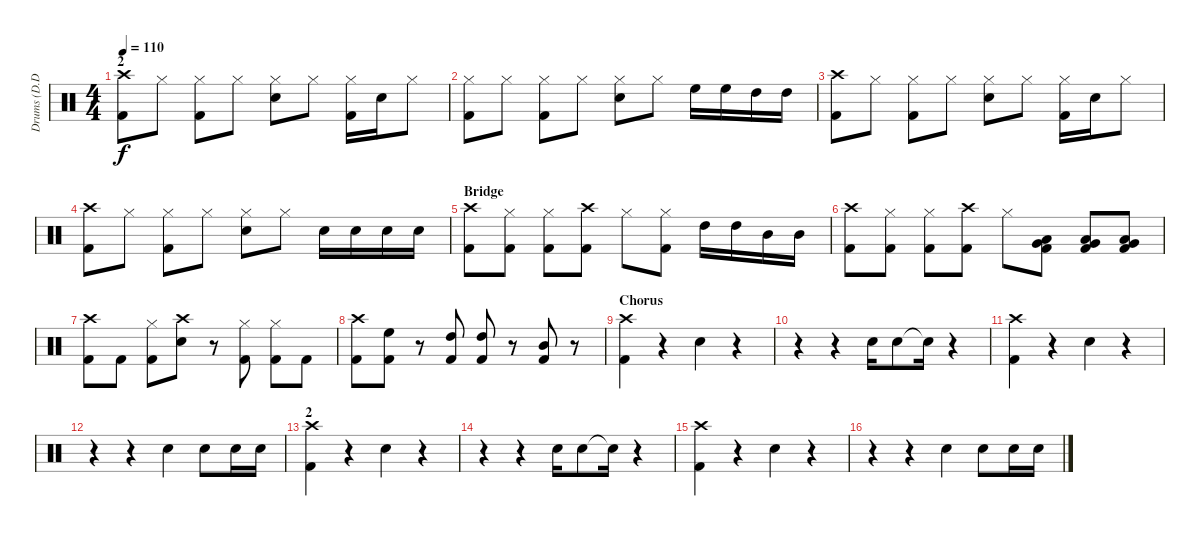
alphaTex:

\track ("Drums (D.D. Bucco)" "Drums (D.D") {instrument percussion}
\staff {score}
\articulation defaults
\ts (4 4)
\section ("" "2")
\tempo 110
\clef neutral
\ks c
("Crash high (hit)" "Kick (hit) 2").8{dy f} "Hi-Hat (closed)".8 ("Hi-Hat (closed)" "Kick (hit) 2").8 "Hi-Hat (closed)".8 ("Hi-Hat (closed)" "Snare (hit) 2").8 "Hi-Hat (closed)".8 ("Hi-Hat (closed)" "Kick (hit) 2").16 "Snare (hit) 2".16 "Hi-Hat (closed)".8 |
("Hi-Hat (closed)" "Kick (hit) 2").8 "Hi-Hat (closed)".8 ("Hi-Hat (closed)" "Kick (hit) 2").8 "Hi-Hat (closed)".8 ("Hi-Hat (closed)" "Snare (hit) 2").8 "Hi-Hat (closed)".8 "High Floor Tom (hit)".16 "High Floor Tom (hit)".16 "High Tom (hit)".16 "High Tom (hit)".16 |
("Crash high (hit)" "Kick (hit) 2").8 "Hi-Hat (closed)".8 ("Hi-Hat (closed)" "Kick (hit) 2").8 "Hi-Hat (closed)".8 ("Hi-Hat (closed)" "Snare (hit) 2").8 "Hi-Hat (closed)".8 ("Hi-Hat (closed)" "Kick (hit) 2").16 "Snare (hit) 2".16 "Hi-Hat (closed)".8 |
("Crash high (hit)" "Kick (hit) 2").8 "Hi-Hat (closed)".8 ("Hi-Hat (closed)" "Kick (hit) 2").8 "Hi-Hat (closed)".8 ("Hi-Hat (closed)" "Snare (hit) 2").8 "Hi-Hat (closed)".8 "Snare (hit) 2".16 "Snare (hit) 2".16 "Snare (hit) 2".16 "Snare (hit) 2".16 |
\section ("" "Bridge")
("Crash high (hit)" "Kick (hit) 2").8 ("Hi-Hat (closed)" "Kick (hit) 2").8 ("Hi-Hat (closed)" "Kick (hit) 2").8 ("Crash high (hit)" "Kick (hit) 2").8 "Hi-Hat (closed)".8 ("Hi-Hat (closed)" "Kick (hit) 2").8 "High Tom (hit)".16 "High Tom (hit)".16 "Mid Tom (hit)".16 "Mid Tom (hit)".16 |
("Crash high (hit)" "Kick (hit) 2").8 ("Hi-Hat (closed)" "Kick (hit) 2").8 ("Hi-Hat (closed)" "Kick (hit) 2").8 ("Crash high (hit)" "Kick (hit) 2").8 "Hi-Hat (closed)".8 ("Very Low Tom (hit)" "Low Floor Tom (hit)" "Kick (hit) 2").8 ("Very Low Tom (hit)" "Low Floor Tom (hit)" "Kick (hit) 2").8 ("Very Low Tom (hit)" "Low Floor Tom (hit)" "Kick (hit) 2").8 |
("Crash high (hit)" "Kick (hit) 2").8 "Kick (hit) 2".8 ("Hi-Hat (closed)" "Kick (hit) 2").8 ("Crash high (hit)" "Snare (hit) 2").8 r.8 ("Hi-Hat (closed)" "Kick (hit) 2").8 ("Hi-Hat (closed)" "Kick (hit) 2").8 "Kick (hit) 2".8 |
("Crash high (hit)" "Kick (hit) 2").8 ("High Floor Tom (hit)" "Kick (hit) 2").8 r.8 ("High Tom (hit)" "Kick (hit) 2").8 ("High Tom (hit)" "Kick (hit) 2").8 r.8 ("Mid Tom (hit)" "Kick (hit) 2").8 r.8 |
\section ("" "Chorus")
("Crash high (hit)" "Kick (hit) 2").4 r.4 "Snare (hit) 2".4 r.4 |
r.4 r.4 "Snare (hit) 2".16 "Snare (hit) 2".8 "Snare (hit)"{t}.16 r.4 |
("Crash high (hit)" "Kick (hit) 2").4 r.4 "Snare (hit) 2".4 r.4 |
r.4 r.4 "Snare (hit) 2".4 "Snare (hit) 2".8 "Snare (hit) 2".16 "Snare (hit) 2".16 |
\section ("" "2")
("Crash high (hit)" "Kick (hit) 2").4 r.4 "Snare (hit) 2".4 r.4 |
r.4 r.4 "Snare (hit) 2".16 "Snare (hit) 2".8 "Snare (hit)"{t}.16 r.4 |
("Crash high (hit)" "Kick (hit) 2").4 r.4 "Snare (hit) 2".4 r.4 |
r.4 r.4 "Snare (hit) 2".4 "Snare (hit) 2".8 "Snare (hit) 2".16 "Snare (hit) 2".16
